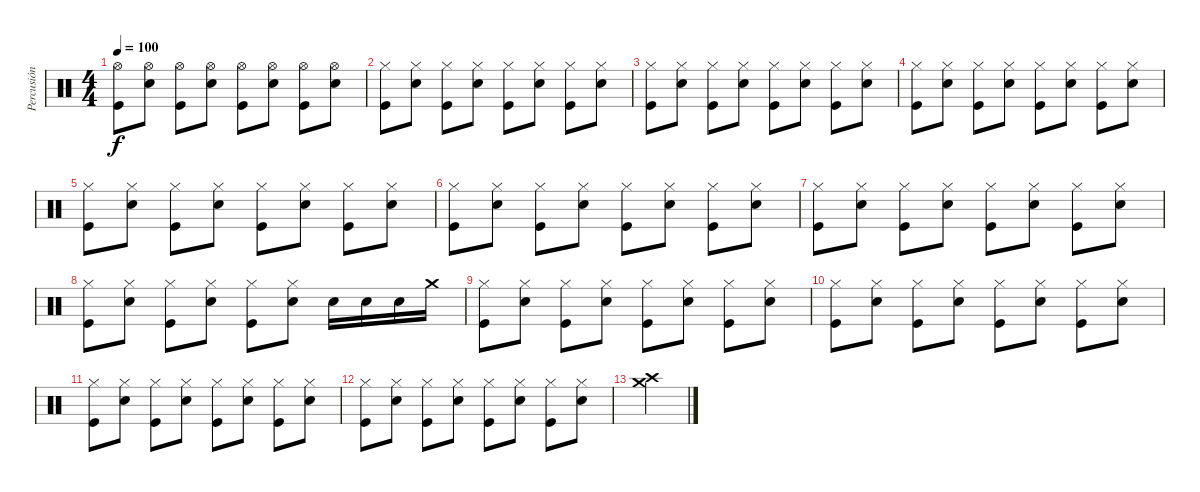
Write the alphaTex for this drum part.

\track ("Percusión" "Percusión") {instrument percussion}
\staff {score}
\articulation defaults
\ts (4 4)
\tempo 100
\clef neutral
\ks c
("Hi-Hat (open)" "Kick (hit)").8{dy f} ("Hi-Hat (open)" "Snare (hit) 2").8 ("Hi-Hat (open)" "Kick (hit)").8 ("Hi-Hat (open)" "Snare (hit) 2").8 ("Hi-Hat (open)" "Kick (hit)").8 ("Hi-Hat (open)" "Snare (hit) 2").8 ("Hi-Hat (open)" "Kick (hit)").8 ("Hi-Hat (open)" "Snare (hit) 2").8 |
("Hi-Hat (closed)" "Kick (hit)").8 ("Hi-Hat (closed)" "Snare (hit) 2").8 ("Hi-Hat (closed)" "Kick (hit)").8 ("Hi-Hat (closed)" "Snare (hit) 2").8 ("Hi-Hat (closed)" "Kick (hit)").8 ("Hi-Hat (closed)" "Snare (hit) 2").8 ("Hi-Hat (closed)" "Kick (hit)").8 ("Hi-Hat (closed)" "Snare (hit) 2").8 |
("Hi-Hat (closed)" "Kick (hit)").8 ("Hi-Hat (closed)" "Snare (hit) 2").8 ("Hi-Hat (closed)" "Kick (hit)").8 ("Hi-Hat (closed)" "Snare (hit) 2").8 ("Hi-Hat (closed)" "Kick (hit)").8 ("Hi-Hat (closed)" "Snare (hit) 2").8 ("Hi-Hat (closed)" "Kick (hit)").8 ("Hi-Hat (closed)" "Snare (hit) 2").8 |
("Hi-Hat (closed)" "Kick (hit)").8 ("Hi-Hat (closed)" "Snare (hit) 2").8 ("Hi-Hat (closed)" "Kick (hit)").8 ("Hi-Hat (closed)" "Snare (hit) 2").8 ("Hi-Hat (closed)" "Kick (hit)").8 ("Hi-Hat (closed)" "Snare (hit) 2").8 ("Hi-Hat (closed)" "Kick (hit)").8 ("Hi-Hat (closed)" "Snare (hit) 2").8 |
("Hi-Hat (closed)" "Kick (hit)").8 ("Hi-Hat (closed)" "Snare (hit) 2").8 ("Hi-Hat (closed)" "Kick (hit)").8 ("Hi-Hat (closed)" "Snare (hit) 2").8 ("Hi-Hat (closed)" "Kick (hit)").8 ("Hi-Hat (closed)" "Snare (hit) 2").8 ("Hi-Hat (closed)" "Kick (hit)").8 ("Hi-Hat (closed)" "Snare (hit) 2").8 |
("Hi-Hat (closed)" "Kick (hit)").8 ("Hi-Hat (closed)" "Snare (hit) 2").8 ("Hi-Hat (closed)" "Kick (hit)").8 ("Hi-Hat (closed)" "Snare (hit) 2").8 ("Hi-Hat (closed)" "Kick (hit)").8 ("Hi-Hat (closed)" "Snare (hit) 2").8 ("Hi-Hat (closed)" "Kick (hit)").8 ("Hi-Hat (closed)" "Snare (hit) 2").8 |
("Hi-Hat (closed)" "Kick (hit)").8 ("Hi-Hat (closed)" "Snare (hit) 2").8 ("Hi-Hat (closed)" "Kick (hit)").8 ("Hi-Hat (closed)" "Snare (hit) 2").8 ("Hi-Hat (closed)" "Kick (hit)").8 ("Hi-Hat (closed)" "Snare (hit) 2").8 ("Hi-Hat (closed)" "Kick (hit)").8 ("Hi-Hat (closed)" "Snare (hit) 2").8 |
("Hi-Hat (closed)" "Kick (hit)").8 ("Hi-Hat (closed)" "Snare (hit) 2").8 ("Hi-Hat (closed)" "Kick (hit)").8 ("Hi-Hat (closed)" "Snare (hit) 2").8 ("Hi-Hat (closed)" "Kick (hit)").8 ("Hi-Hat (closed)" "Snare (hit) 2").8 "Snare (hit) 2".16 "Snare (hit) 2".16 "Snare (hit) 2".16 "Crash medium (hit)".16 |
("Hi-Hat (closed)" "Kick (hit)").8 ("Hi-Hat (closed)" "Snare (hit) 2").8 ("Hi-Hat (closed)" "Kick (hit)").8 ("Hi-Hat (closed)" "Snare (hit) 2").8 ("Hi-Hat (closed)" "Kick (hit)").8 ("Hi-Hat (closed)" "Snare (hit) 2").8 ("Hi-Hat (closed)" "Kick (hit)").8 ("Hi-Hat (closed)" "Snare (hit) 2").8 |
("Hi-Hat (closed)" "Kick (hit)").8 ("Hi-Hat (closed)" "Snare (hit) 2").8 ("Hi-Hat (closed)" "Kick (hit)").8 ("Hi-Hat (closed)" "Snare (hit) 2").8 ("Hi-Hat (closed)" "Kick (hit)").8 ("Hi-Hat (closed)" "Snare (hit) 2").8 ("Hi-Hat (closed)" "Kick (hit)").8 ("Hi-Hat (closed)" "Snare (hit) 2").8 |
("Hi-Hat (closed)" "Kick (hit)").8 ("Hi-Hat (closed)" "Snare (hit) 2").8 ("Hi-Hat (closed)" "Kick (hit)").8 ("Hi-Hat (closed)" "Snare (hit) 2").8 ("Hi-Hat (closed)" "Kick (hit)").8 ("Hi-Hat (closed)" "Snare (hit) 2").8 ("Hi-Hat (closed)" "Kick (hit)").8 ("Hi-Hat (closed)" "Snare (hit) 2").8 |
("Hi-Hat (closed)" "Kick (hit)").8 ("Hi-Hat (closed)" "Snare (hit) 2").8 ("Hi-Hat (closed)" "Kick (hit)").8 ("Hi-Hat (closed)" "Snare (hit) 2").8 ("Hi-Hat (closed)" "Kick (hit)").8 ("Hi-Hat (closed)" "Snare (hit) 2").8 ("Hi-Hat (closed)" "Kick (hit)").8 ("Hi-Hat (closed)" "Snare (hit) 2").8 |
("Crash medium (hit)" "Crash high (hit)").4
